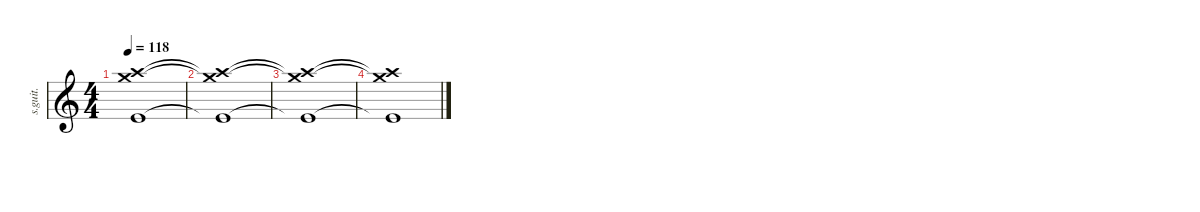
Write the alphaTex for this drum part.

\defaultSystemsLayout 4
\hideDynamics
\bracketExtendMode nobrackets
\track ("Drums [Arin Ilejay]" "s.guit.") {instrument percussion}
\staff {score}
\articulation defaults
\ts (4 4)
\tempo 118
\clef g2
\ks c
("Crash high (hit)"{t} "Crash medium (hit)"{t} "Kick (hit)"{t}).1{lyrics (0 "") lyrics (1 "") lyrics (2 "") lyrics (3 "") lyrics (4 "") dy f} |
("Crash high (hit)"{t} "Crash medium (hit)"{t} "Kick (hit)"{t}).1{lyrics (0 "") lyrics (1 "") lyrics (2 "") lyrics (3 "") lyrics (4 "")} |
("Crash high (hit)"{t} "Crash medium (hit)"{t} "Kick (hit)"{t}).1{lyrics (0 "") lyrics (1 "") lyrics (2 "") lyrics (3 "") lyrics (4 "")} |
("Crash high (hit)"{t} "Crash medium (hit)"{t} "Kick (hit)"{t}).1{lyrics (0 "") lyrics (1 "") lyrics (2 "") lyrics (3 "") lyrics (4 "")}
